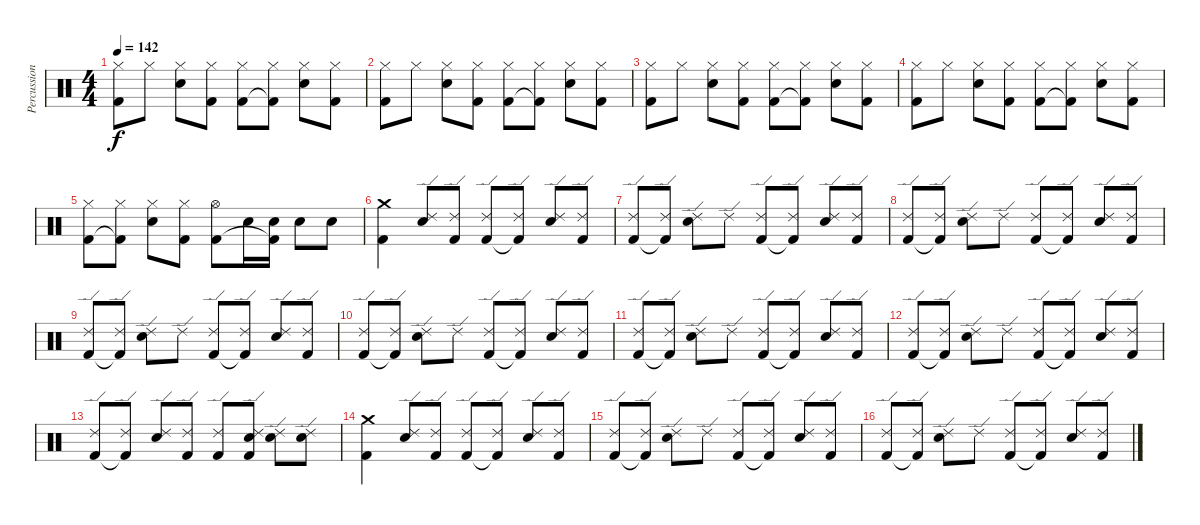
\track ("Percussion" "Percussion") {instrument percussion}
\staff {score}
\articulation defaults
\ts (4 4)
\tempo 142
\clef neutral
\ks c
("Hi-Hat (closed)" "Kick (hit) 2").8{dy f} "Hi-Hat (closed)".8 ("Hi-Hat (closed)" "Snare (hit) 2").8 ("Hi-Hat (closed)" "Kick (hit) 2").8 ("Hi-Hat (closed)" "Kick (hit) 2").8 ("Hi-Hat (closed)" "Kick (hit) 2"{t}).8 ("Hi-Hat (closed)" "Snare (hit) 2").8 ("Hi-Hat (closed)" "Kick (hit) 2").8 |
("Hi-Hat (closed)" "Kick (hit) 2").8 "Hi-Hat (closed)".8 ("Hi-Hat (closed)" "Snare (hit) 2").8 ("Hi-Hat (closed)" "Kick (hit) 2").8 ("Hi-Hat (closed)" "Kick (hit) 2").8 ("Hi-Hat (closed)" "Kick (hit) 2"{t}).8 ("Hi-Hat (closed)" "Snare (hit) 2").8 ("Hi-Hat (closed)" "Kick (hit) 2").8 |
("Hi-Hat (closed)" "Kick (hit) 2").8 "Hi-Hat (closed)".8 ("Hi-Hat (closed)" "Snare (hit) 2").8 ("Hi-Hat (closed)" "Kick (hit) 2").8 ("Hi-Hat (closed)" "Kick (hit) 2").8 ("Hi-Hat (closed)" "Kick (hit) 2"{t}).8 ("Hi-Hat (closed)" "Snare (hit) 2").8 ("Hi-Hat (closed)" "Kick (hit) 2").8 |
("Hi-Hat (closed)" "Kick (hit) 2").8 "Hi-Hat (closed)".8 ("Hi-Hat (closed)" "Snare (hit) 2").8 ("Hi-Hat (closed)" "Kick (hit) 2").8 ("Hi-Hat (closed)" "Kick (hit) 2").8 ("Hi-Hat (closed)" "Kick (hit) 2"{t}).8 ("Hi-Hat (closed)" "Snare (hit) 2").8 ("Hi-Hat (closed)" "Kick (hit) 2").8 |
("Hi-Hat (closed)" "Kick (hit) 2").8 ("Hi-Hat (closed)" "Kick (hit) 2"{t}).8 ("Hi-Hat (closed)" "Snare (hit) 2").8 ("Hi-Hat (closed)" "Kick (hit) 2").8 ("Hi-Hat (open)" "Kick (hit) 2").8 "Snare (hit) 2".16 ("Snare (hit) 2" "Kick (hit) 2"{t}).16 "Snare (hit) 2".8 "Snare (hit) 2".8 |
("Crash medium (hit)" "Kick (hit) 2").4 ("Ride (edge) 2" "Snare (hit) 2").8 ("Ride (edge) 2" "Kick (hit) 2").8 ("Ride (edge) 2" "Kick (hit) 2").8 ("Ride (edge) 2" "Kick (hit) 2"{t}).8 ("Ride (edge) 2" "Snare (hit) 2").8 ("Ride (edge) 2" "Kick (hit) 2").8 |
("Ride (edge) 2" "Kick (hit) 2").8 ("Ride (edge) 2" "Kick (hit) 2"{t}).8 ("Ride (edge) 2" "Snare (hit) 2").8 "Ride (edge) 2".8 ("Ride (edge) 2" "Kick (hit) 2").8 ("Ride (edge) 2" "Kick (hit) 2"{t}).8 ("Ride (edge) 2" "Snare (hit) 2").8 ("Ride (edge) 2" "Kick (hit) 2").8 |
("Ride (edge) 2" "Kick (hit) 2").8 ("Ride (edge) 2" "Kick (hit) 2"{t}).8 ("Ride (edge) 2" "Snare (hit) 2").8 "Ride (edge) 2".8 ("Ride (edge) 2" "Kick (hit) 2").8 ("Ride (edge) 2" "Kick (hit) 2"{t}).8 ("Ride (edge) 2" "Snare (hit) 2").8 ("Ride (edge) 2" "Kick (hit) 2").8 |
("Ride (edge) 2" "Kick (hit) 2").8 ("Ride (edge) 2" "Kick (hit) 2"{t}).8 ("Ride (edge) 2" "Snare (hit) 2").8 "Ride (edge) 2".8 ("Ride (edge) 2" "Kick (hit) 2").8 ("Ride (edge) 2" "Kick (hit) 2"{t}).8 ("Ride (edge) 2" "Snare (hit) 2").8 ("Ride (edge) 2" "Kick (hit) 2").8 |
("Ride (edge) 2" "Kick (hit) 2").8 ("Ride (edge) 2" "Kick (hit) 2"{t}).8 ("Ride (edge) 2" "Snare (hit) 2").8 "Ride (edge) 2".8 ("Ride (edge) 2" "Kick (hit) 2").8 ("Ride (edge) 2" "Kick (hit) 2"{t}).8 ("Ride (edge) 2" "Snare (hit) 2").8 ("Ride (edge) 2" "Kick (hit) 2").8 |
("Ride (edge) 2" "Kick (hit) 2").8 ("Ride (edge) 2" "Kick (hit) 2"{t}).8 ("Ride (edge) 2" "Snare (hit) 2").8 "Ride (edge) 2".8 ("Ride (edge) 2" "Kick (hit) 2").8 ("Ride (edge) 2" "Kick (hit) 2"{t}).8 ("Ride (edge) 2" "Snare (hit) 2").8 ("Ride (edge) 2" "Kick (hit) 2").8 |
("Ride (edge) 2" "Kick (hit) 2").8 ("Ride (edge) 2" "Kick (hit) 2"{t}).8 ("Ride (edge) 2" "Snare (hit) 2").8 "Ride (edge) 2".8 ("Ride (edge) 2" "Kick (hit) 2").8 ("Ride (edge) 2" "Kick (hit) 2"{t}).8 ("Ride (edge) 2" "Snare (hit) 2").8 ("Ride (edge) 2" "Kick (hit) 2").8 |
("Ride (edge) 2" "Kick (hit) 2").8 ("Ride (edge) 2" "Kick (hit) 2"{t}).8 ("Ride (edge) 2" "Snare (hit) 2").8 ("Ride (edge) 2" "Kick (hit) 2").8 ("Ride (edge) 2" "Kick (hit) 2").8 ("Ride (edge) 2" "Snare (hit) 2" "Kick (hit) 2").8 ("Ride (edge) 2" "Snare (hit) 2").8 ("Ride (edge) 2" "Snare (hit) 2").8 |
("Crash medium (hit)" "Kick (hit) 2").4 ("Ride (edge) 2" "Snare (hit) 2").8 ("Ride (edge) 2" "Kick (hit) 2").8 ("Ride (edge) 2" "Kick (hit) 2").8 ("Ride (edge) 2" "Kick (hit) 2"{t}).8 ("Ride (edge) 2" "Snare (hit) 2").8 ("Ride (edge) 2" "Kick (hit) 2").8 |
("Ride (edge) 2" "Kick (hit) 2").8 ("Ride (edge) 2" "Kick (hit) 2"{t}).8 ("Ride (edge) 2" "Snare (hit) 2").8 "Ride (edge) 2".8 ("Ride (edge) 2" "Kick (hit) 2").8 ("Ride (edge) 2" "Kick (hit) 2"{t}).8 ("Ride (edge) 2" "Snare (hit) 2").8 ("Ride (edge) 2" "Kick (hit) 2").8 |
("Ride (edge) 2" "Kick (hit) 2").8 ("Ride (edge) 2" "Kick (hit) 2"{t}).8 ("Ride (edge) 2" "Snare (hit) 2").8 "Ride (edge) 2".8 ("Ride (edge) 2" "Kick (hit) 2").8 ("Ride (edge) 2" "Kick (hit) 2"{t}).8 ("Ride (edge) 2" "Snare (hit) 2").8 ("Ride (edge) 2" "Kick (hit) 2").8
